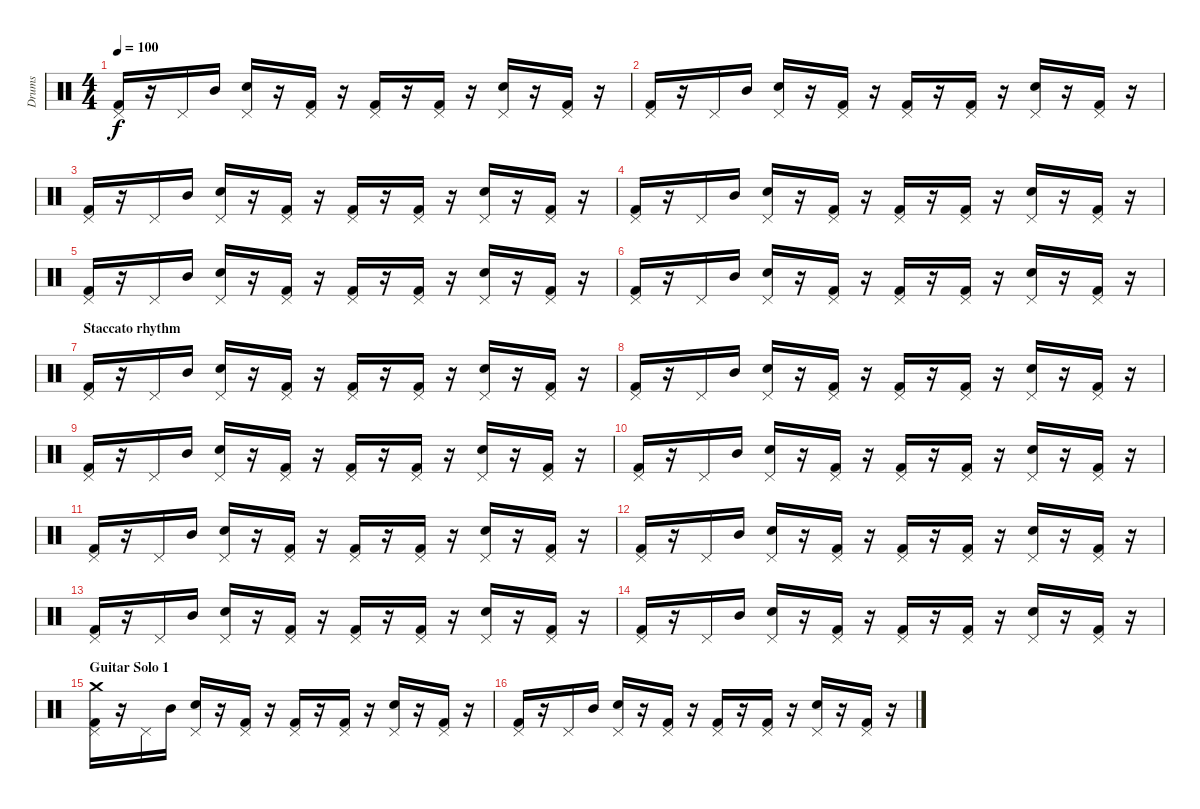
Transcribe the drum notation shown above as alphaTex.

\track ("Drums" "Drums") {instrument percussion}
\staff {score}
\articulation defaults
\ts (4 4)
\tempo 100
\clef neutral
\ks c
("Kick (hit) 2" "Pedal Hi-Hat (hit)").16{dy f} r.16 "Pedal Hi-Hat (hit)".16 "Mid Tom (hit)".16 ("Pedal Hi-Hat (hit)" "Electric Snare (hit)").16 r.16 ("Kick (hit) 2" "Pedal Hi-Hat (hit)").16 r.16 ("Kick (hit) 2" "Pedal Hi-Hat (hit)").16 r.16 ("Kick (hit) 2" "Pedal Hi-Hat (hit)").16 r.16 ("Pedal Hi-Hat (hit)" "Electric Snare (hit)").16 r.16 ("Kick (hit) 2" "Pedal Hi-Hat (hit)").16 r.16 |
("Kick (hit) 2" "Pedal Hi-Hat (hit)").16 r.16 "Pedal Hi-Hat (hit)".16 "Mid Tom (hit)".16 ("Pedal Hi-Hat (hit)" "Electric Snare (hit)").16 r.16 ("Kick (hit) 2" "Pedal Hi-Hat (hit)").16 r.16 ("Kick (hit) 2" "Pedal Hi-Hat (hit)").16 r.16 ("Kick (hit) 2" "Pedal Hi-Hat (hit)").16 r.16 ("Pedal Hi-Hat (hit)" "Electric Snare (hit)").16 r.16 ("Kick (hit) 2" "Pedal Hi-Hat (hit)").16 r.16 |
("Kick (hit) 2" "Pedal Hi-Hat (hit)").16 r.16 "Pedal Hi-Hat (hit)".16 "Mid Tom (hit)".16 ("Pedal Hi-Hat (hit)" "Electric Snare (hit)").16 r.16 ("Kick (hit) 2" "Pedal Hi-Hat (hit)").16 r.16 ("Kick (hit) 2" "Pedal Hi-Hat (hit)").16 r.16 ("Kick (hit) 2" "Pedal Hi-Hat (hit)").16 r.16 ("Pedal Hi-Hat (hit)" "Electric Snare (hit)").16 r.16 ("Kick (hit) 2" "Pedal Hi-Hat (hit)").16 r.16 |
("Kick (hit) 2" "Pedal Hi-Hat (hit)").16 r.16 "Pedal Hi-Hat (hit)".16 "Mid Tom (hit)".16 ("Pedal Hi-Hat (hit)" "Electric Snare (hit)").16 r.16 ("Kick (hit) 2" "Pedal Hi-Hat (hit)").16 r.16 ("Kick (hit) 2" "Pedal Hi-Hat (hit)").16 r.16 ("Kick (hit) 2" "Pedal Hi-Hat (hit)").16 r.16 ("Pedal Hi-Hat (hit)" "Electric Snare (hit)").16 r.16 ("Kick (hit) 2" "Pedal Hi-Hat (hit)").16 r.16 |
("Kick (hit) 2" "Pedal Hi-Hat (hit)").16 r.16 "Pedal Hi-Hat (hit)".16 "Mid Tom (hit)".16 ("Pedal Hi-Hat (hit)" "Electric Snare (hit)").16 r.16 ("Kick (hit) 2" "Pedal Hi-Hat (hit)").16 r.16 ("Kick (hit) 2" "Pedal Hi-Hat (hit)").16 r.16 ("Kick (hit) 2" "Pedal Hi-Hat (hit)").16 r.16 ("Pedal Hi-Hat (hit)" "Electric Snare (hit)").16 r.16 ("Kick (hit) 2" "Pedal Hi-Hat (hit)").16 r.16 |
("Kick (hit) 2" "Pedal Hi-Hat (hit)").16 r.16 "Pedal Hi-Hat (hit)".16 "Mid Tom (hit)".16 ("Pedal Hi-Hat (hit)" "Electric Snare (hit)").16 r.16 ("Kick (hit) 2" "Pedal Hi-Hat (hit)").16 r.16 ("Kick (hit) 2" "Pedal Hi-Hat (hit)").16 r.16 ("Kick (hit) 2" "Pedal Hi-Hat (hit)").16 r.16 ("Pedal Hi-Hat (hit)" "Electric Snare (hit)").16 r.16 ("Kick (hit) 2" "Pedal Hi-Hat (hit)").16 r.16 |
\section ("" "Staccato rhythm")
("Kick (hit) 2" "Pedal Hi-Hat (hit)").16 r.16 "Pedal Hi-Hat (hit)".16 "Mid Tom (hit)".16 ("Pedal Hi-Hat (hit)" "Electric Snare (hit)").16 r.16 ("Kick (hit) 2" "Pedal Hi-Hat (hit)").16 r.16 ("Kick (hit) 2" "Pedal Hi-Hat (hit)").16 r.16 ("Kick (hit) 2" "Pedal Hi-Hat (hit)").16 r.16 ("Pedal Hi-Hat (hit)" "Electric Snare (hit)").16 r.16 ("Kick (hit) 2" "Pedal Hi-Hat (hit)").16 r.16 |
("Kick (hit) 2" "Pedal Hi-Hat (hit)").16 r.16 "Pedal Hi-Hat (hit)".16 "Mid Tom (hit)".16 ("Pedal Hi-Hat (hit)" "Electric Snare (hit)").16 r.16 ("Kick (hit) 2" "Pedal Hi-Hat (hit)").16 r.16 ("Kick (hit) 2" "Pedal Hi-Hat (hit)").16 r.16 ("Kick (hit) 2" "Pedal Hi-Hat (hit)").16 r.16 ("Pedal Hi-Hat (hit)" "Electric Snare (hit)").16 r.16 ("Kick (hit) 2" "Pedal Hi-Hat (hit)").16 r.16 |
("Kick (hit) 2" "Pedal Hi-Hat (hit)").16 r.16 "Pedal Hi-Hat (hit)".16 "Mid Tom (hit)".16 ("Pedal Hi-Hat (hit)" "Electric Snare (hit)").16 r.16 ("Kick (hit) 2" "Pedal Hi-Hat (hit)").16 r.16 ("Kick (hit) 2" "Pedal Hi-Hat (hit)").16 r.16 ("Kick (hit) 2" "Pedal Hi-Hat (hit)").16 r.16 ("Pedal Hi-Hat (hit)" "Electric Snare (hit)").16 r.16 ("Kick (hit) 2" "Pedal Hi-Hat (hit)").16 r.16 |
("Kick (hit) 2" "Pedal Hi-Hat (hit)").16 r.16 "Pedal Hi-Hat (hit)".16 "Mid Tom (hit)".16 ("Pedal Hi-Hat (hit)" "Electric Snare (hit)").16 r.16 ("Kick (hit) 2" "Pedal Hi-Hat (hit)").16 r.16 ("Kick (hit) 2" "Pedal Hi-Hat (hit)").16 r.16 ("Kick (hit) 2" "Pedal Hi-Hat (hit)").16 r.16 ("Pedal Hi-Hat (hit)" "Electric Snare (hit)").16 r.16 ("Kick (hit) 2" "Pedal Hi-Hat (hit)").16 r.16 |
("Kick (hit) 2" "Pedal Hi-Hat (hit)").16 r.16 "Pedal Hi-Hat (hit)".16 "Mid Tom (hit)".16 ("Pedal Hi-Hat (hit)" "Electric Snare (hit)").16 r.16 ("Kick (hit) 2" "Pedal Hi-Hat (hit)").16 r.16 ("Kick (hit) 2" "Pedal Hi-Hat (hit)").16 r.16 ("Kick (hit) 2" "Pedal Hi-Hat (hit)").16 r.16 ("Pedal Hi-Hat (hit)" "Electric Snare (hit)").16 r.16 ("Kick (hit) 2" "Pedal Hi-Hat (hit)").16 r.16 |
("Kick (hit) 2" "Pedal Hi-Hat (hit)").16 r.16 "Pedal Hi-Hat (hit)".16 "Mid Tom (hit)".16 ("Pedal Hi-Hat (hit)" "Electric Snare (hit)").16 r.16 ("Kick (hit) 2" "Pedal Hi-Hat (hit)").16 r.16 ("Kick (hit) 2" "Pedal Hi-Hat (hit)").16 r.16 ("Kick (hit) 2" "Pedal Hi-Hat (hit)").16 r.16 ("Pedal Hi-Hat (hit)" "Electric Snare (hit)").16 r.16 ("Kick (hit) 2" "Pedal Hi-Hat (hit)").16 r.16 |
("Kick (hit) 2" "Pedal Hi-Hat (hit)").16 r.16 "Pedal Hi-Hat (hit)".16 "Mid Tom (hit)".16 ("Pedal Hi-Hat (hit)" "Electric Snare (hit)").16 r.16 ("Kick (hit) 2" "Pedal Hi-Hat (hit)").16 r.16 ("Kick (hit) 2" "Pedal Hi-Hat (hit)").16 r.16 ("Kick (hit) 2" "Pedal Hi-Hat (hit)").16 r.16 ("Pedal Hi-Hat (hit)" "Electric Snare (hit)").16 r.16 ("Kick (hit) 2" "Pedal Hi-Hat (hit)").16 r.16 |
("Kick (hit) 2" "Pedal Hi-Hat (hit)").16 r.16 "Pedal Hi-Hat (hit)".16 "Mid Tom (hit)".16 ("Pedal Hi-Hat (hit)" "Electric Snare (hit)").16 r.16 ("Kick (hit) 2" "Pedal Hi-Hat (hit)").16 r.16 ("Kick (hit) 2" "Pedal Hi-Hat (hit)").16 r.16 ("Kick (hit) 2" "Pedal Hi-Hat (hit)").16 r.16 ("Pedal Hi-Hat (hit)" "Electric Snare (hit)").16 r.16 ("Kick (hit) 2" "Pedal Hi-Hat (hit)").16 r.16 |
\section ("" "Guitar Solo 1")
("Kick (hit) 2" "Pedal Hi-Hat (hit)" "Crash medium (hit)").16 r.16 "Pedal Hi-Hat (hit)".16 "Mid Tom (hit)".16 ("Pedal Hi-Hat (hit)" "Electric Snare (hit)").16 r.16 ("Kick (hit) 2" "Pedal Hi-Hat (hit)").16 r.16 ("Kick (hit) 2" "Pedal Hi-Hat (hit)").16 r.16 ("Kick (hit) 2" "Pedal Hi-Hat (hit)").16 r.16 ("Pedal Hi-Hat (hit)" "Electric Snare (hit)").16 r.16 ("Kick (hit) 2" "Pedal Hi-Hat (hit)").16 r.16 |
("Kick (hit) 2" "Pedal Hi-Hat (hit)").16 r.16 "Pedal Hi-Hat (hit)".16 "Mid Tom (hit)".16 ("Pedal Hi-Hat (hit)" "Electric Snare (hit)").16 r.16 ("Kick (hit) 2" "Pedal Hi-Hat (hit)").16 r.16 ("Kick (hit) 2" "Pedal Hi-Hat (hit)").16 r.16 ("Kick (hit) 2" "Pedal Hi-Hat (hit)").16 r.16 ("Pedal Hi-Hat (hit)" "Electric Snare (hit)").16 r.16 ("Kick (hit) 2" "Pedal Hi-Hat (hit)").16 r.16
